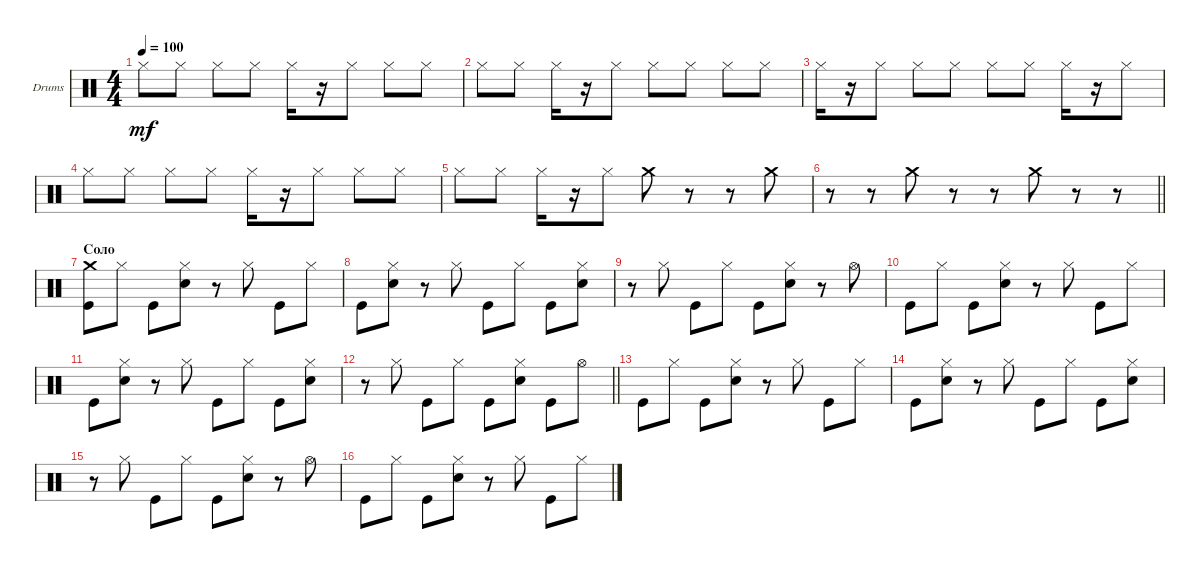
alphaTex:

\bracketExtendMode groupsimilarinstruments
\firstSystemTrackNameOrientation horizontal
\otherSystemsTrackNameOrientation horizontal
\track ("Е. Кулаков" "Drums") {instrument percussion}
\staff {score}
\articulation defaults
\ts (4 4)
\tempo 100
\clef neutral
\ks c "Hi-Hat (closed)".8{dy mf} "Hi-Hat (closed)".8 "Hi-Hat (closed)".8 "Hi-Hat (closed)".8 "Hi-Hat (closed)".16
r.16 "Hi-Hat (closed)".8 "Hi-Hat (closed)".8 "Hi-Hat (closed)".8 |
"Hi-Hat (closed)".8 "Hi-Hat (closed)".8 "Hi-Hat (closed)".16 r.16 "Hi-Hat (closed)".8 "Hi-Hat (closed)".8 "Hi-Hat (closed)".8 "Hi-Hat (closed)".8 "Hi-Hat (closed)".8 |
"Hi-Hat (closed)".16 r.16 "Hi-Hat (closed)".8 "Hi-Hat (closed)".8 "Hi-Hat (closed)".8 "Hi-Hat (closed)".8 "Hi-Hat (closed)".8 "Hi-Hat (closed)".16 r.16 "Hi-Hat (closed)".8 |
"Hi-Hat (closed)".8 "Hi-Hat (closed)".8 "Hi-Hat (closed)".8 "Hi-Hat (closed)".8 "Hi-Hat (closed)".16 r.16 "Hi-Hat (closed)".8 "Hi-Hat (closed)".8 "Hi-Hat (closed)".8 |
"Hi-Hat (closed)".8 "Hi-Hat (closed)".8 "Hi-Hat (closed)".16 r.16 "Hi-Hat (closed)".8 "Crash medium (hit)".8 r.8 r.8 "Crash medium (hit)".8 |
\barLineRight lightlight
r.8 r.8 "Crash medium (hit)".8 r.8 r.8 "Crash medium (hit)".8 r.8 r.8 |
\section ("" "Соло")
("Kick (hit)" "Crash medium (hit)").8 "Hi-Hat (closed)".8 "Kick (hit)".8 ("Snare (hit) 2" "Hi-Hat (closed)").8 r.8 "Hi-Hat (closed)".8 "Kick (hit)".8 "Hi-Hat (closed)".8 |
"Kick (hit)".8 ("Snare (hit) 2" "Hi-Hat (closed)").8 r.8 "Hi-Hat (closed)".8 "Kick (hit)".8 "Hi-Hat (closed)".8 "Kick (hit)".8 ("Snare (hit) 2" "Hi-Hat (closed)").8 |
r.8 "Hi-Hat (closed)".8 "Kick (hit)".8 "Hi-Hat (closed)".8 "Kick (hit)".8 ("Snare (hit) 2" "Hi-Hat (closed)").8 r.8 "Hi-Hat (open)".8 |
"Kick (hit)".8 "Hi-Hat (closed)".8 "Kick (hit)".8 ("Snare (hit) 2" "Hi-Hat (closed)").8 r.8 "Hi-Hat (closed)".8 "Kick (hit)".8 "Hi-Hat (closed)".8 |
"Kick (hit)".8 ("Snare (hit) 2" "Hi-Hat (closed)").8 r.8 "Hi-Hat (closed)".8 "Kick (hit)".8 "Hi-Hat (closed)".8 "Kick (hit)".8 ("Snare (hit) 2" "Hi-Hat (closed)").8 |
\barLineRight lightlight
r.8 "Hi-Hat (closed)".8 "Kick (hit)".8 "Hi-Hat (closed)".8 "Kick (hit)".8 ("Snare (hit) 2" "Hi-Hat (closed)").8 "Kick (hit)".8 "Hi-Hat (open)".8 |
"Kick (hit)".8 "Hi-Hat (closed)".8 "Kick (hit)".8 ("Snare (hit) 2" "Hi-Hat (closed)").8 r.8 "Hi-Hat (closed)".8 "Kick (hit)".8 "Hi-Hat (closed)".8 |
"Kick (hit)".8 ("Snare (hit) 2" "Hi-Hat (closed)").8 r.8 "Hi-Hat (closed)".8 "Kick (hit)".8 "Hi-Hat (closed)".8 "Kick (hit)".8 ("Snare (hit) 2" "Hi-Hat (closed)").8 |
r.8 "Hi-Hat (closed)".8 "Kick (hit)".8 "Hi-Hat (closed)".8 "Kick (hit)".8 ("Snare (hit) 2" "Hi-Hat (closed)").8 r.8 "Hi-Hat (open)".8 |
"Kick (hit)".8 "Hi-Hat (closed)".8 "Kick (hit)".8 ("Snare (hit) 2" "Hi-Hat (closed)").8 r.8 "Hi-Hat (closed)".8 "Kick (hit)".8 "Hi-Hat (closed)".8
